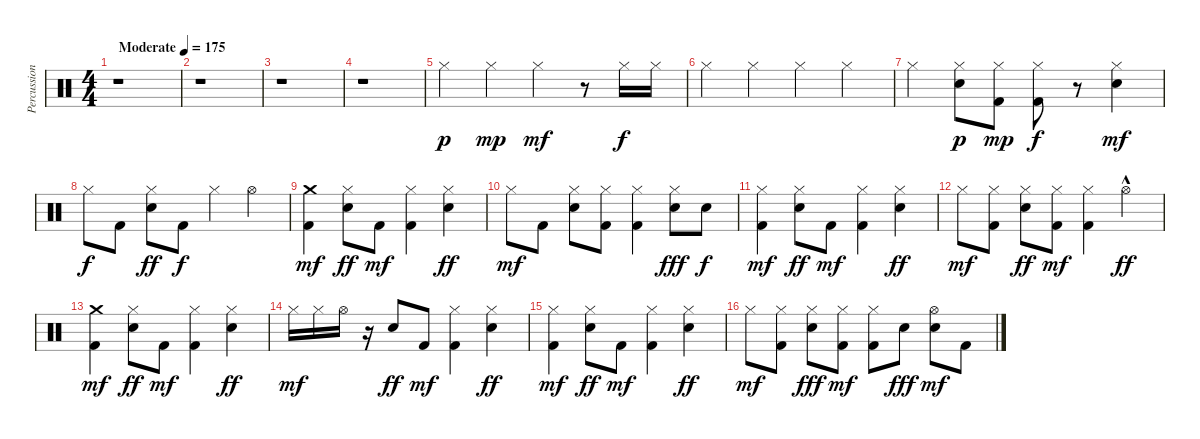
\track ("Percussion" "Percussion") {instrument percussion}
\staff {score}
\articulation defaults
\ts (4 4)
\tempo (175 "Moderate")
\clef neutral
\ks c
r.1{dy p} |
r.1 |
r.1 |
r.1 |
"Hi-Hat (closed)".4 "Hi-Hat (closed)".4{dy mp} "Hi-Hat (closed)".4{dy mf} r.8 "Hi-Hat (closed)".16{dy f} "Hi-Hat (closed)".16 |
"Hi-Hat (closed)".4 "Hi-Hat (closed)".4 "Hi-Hat (closed)".4 "Hi-Hat (closed)".4 |
"Hi-Hat (closed)".4 ("Hi-Hat (closed)" "Electric Snare (hit)").8{dy p} ("Hi-Hat (closed)" "Kick (hit) 2").8{dy mp} ("Hi-Hat (closed)" "Kick (hit) 2").8{dy f} r.8 ("Hi-Hat (closed)" "Electric Snare (hit)").4{dy mf} |
"Hi-Hat (closed)".8{dy f} "Kick (hit) 2".8 ("Hi-Hat (closed)" "Electric Snare (hit)").8{dy ff} "Kick (hit) 2".8{dy f} "Hi-Hat (closed)".4 "Hi-Hat (open)".4 |
("Crash medium (hit)" "Kick (hit) 2").4{dy mf} ("Hi-Hat (closed)" "Electric Snare (hit)").8{dy ff} "Kick (hit) 2".8{dy mf} ("Hi-Hat (closed)" "Kick (hit) 2").4 ("Hi-Hat (closed)" "Electric Snare (hit)").4{dy ff} |
"Hi-Hat (closed)".8{dy mf} "Kick (hit) 2".8 ("Hi-Hat (closed)" "Electric Snare (hit)").8 ("Hi-Hat (closed)" "Kick (hit) 2").8 ("Hi-Hat (closed)" "Kick (hit) 2").4 ("Hi-Hat (closed)" "Electric Snare (hit)").8{dy fff} "Electric Snare (hit)".8{dy f} |
("Hi-Hat (closed)" "Kick (hit) 2").4{dy mf} ("Hi-Hat (closed)" "Electric Snare (hit)").8{dy ff} "Kick (hit) 2".8{dy mf} ("Hi-Hat (closed)" "Kick (hit) 2").4 ("Hi-Hat (closed)" "Electric Snare (hit)").4{dy ff} |
"Hi-Hat (closed)".8{dy mf} ("Hi-Hat (closed)" "Kick (hit) 2").8 ("Hi-Hat (closed)" "Electric Snare (hit)").8{dy ff} ("Hi-Hat (closed)" "Kick (hit) 2").8{dy mf} ("Hi-Hat (closed)" "Kick (hit) 2").4 "Hi-Hat (open)"{hac}.4{dy ff} |
("Crash medium (hit)" "Kick (hit) 2").4{dy mf} ("Hi-Hat (closed)" "Electric Snare (hit)").8{dy ff} "Kick (hit) 2".8{dy mf} ("Hi-Hat (closed)" "Kick (hit) 2").4 ("Hi-Hat (closed)" "Electric Snare (hit)").4{dy ff} |
"Hi-Hat (closed)".16{dy mf} "Hi-Hat (closed)".16 "Hi-Hat (open)".16 r.16 "Electric Snare (hit)".8{dy ff} "Kick (hit) 2".8{dy mf} ("Hi-Hat (closed)" "Kick (hit) 2").4 ("Hi-Hat (closed)" "Electric Snare (hit)").4{dy ff} |
("Hi-Hat (closed)" "Kick (hit) 2").4{dy mf} ("Hi-Hat (closed)" "Electric Snare (hit)").8{dy ff} "Kick (hit) 2".8{dy mf} ("Hi-Hat (closed)" "Kick (hit) 2").4 ("Hi-Hat (closed)" "Electric Snare (hit)").4{dy ff} |
"Hi-Hat (closed)".8{dy mf} ("Hi-Hat (closed)" "Kick (hit) 2").8 ("Hi-Hat (closed)" "Electric Snare (hit)").8{dy fff} ("Hi-Hat (closed)" "Kick (hit) 2").8{dy mf} ("Hi-Hat (closed)" "Kick (hit) 2").8 "Electric Snare (hit)".8{dy fff} ("Hi-Hat (open)" "Electric Snare (hit)").8{dy mf} "Kick (hit) 2".8
